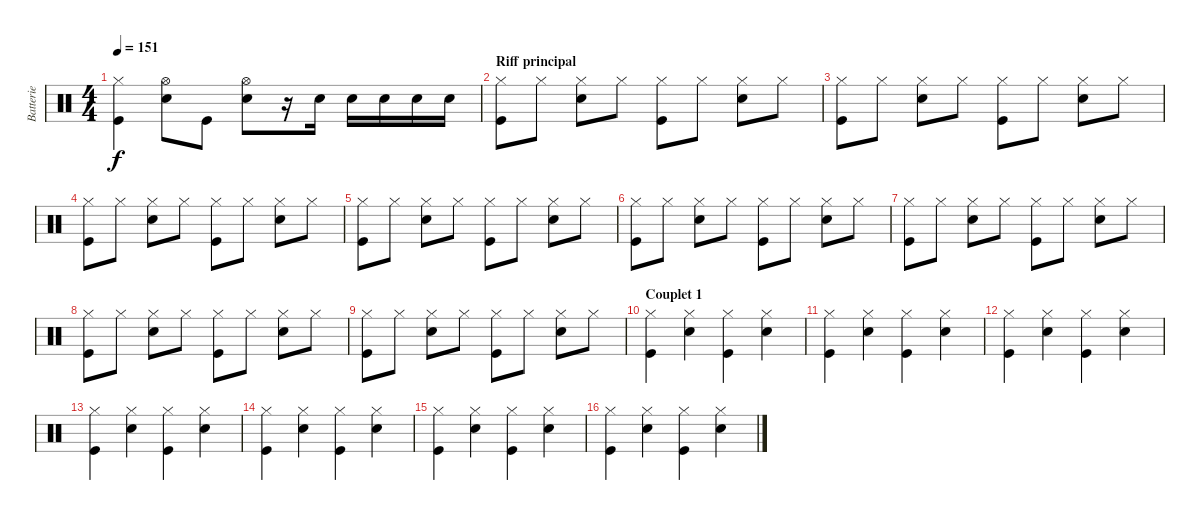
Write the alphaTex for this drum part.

\track ("Batterie" "Batterie") {instrument percussion}
\staff {score}
\articulation defaults
\ts (4 4)
\tempo 151
\clef neutral
\ks c
("Hi-Hat (closed)" "Kick (hit)").4{dy f} ("Hi-Hat (open)" "Electric Snare (hit)").8 "Kick (hit)".8 ("Hi-Hat (open)" "Electric Snare (hit)").8 r.16 "Electric Snare (hit)".16 "Electric Snare (hit)".16 "Electric Snare (hit)".16 "Electric Snare (hit)".16 "Electric Snare (hit)".16 |
\section ("" "Riff principal")
("Hi-Hat (closed)" "Kick (hit)").8 "Hi-Hat (closed)".8 ("Hi-Hat (closed)" "Electric Snare (hit)").8 "Hi-Hat (closed)".8 ("Hi-Hat (closed)" "Kick (hit)").8 "Hi-Hat (closed)".8 ("Hi-Hat (closed)" "Electric Snare (hit)").8 "Hi-Hat (closed)".8 |
("Hi-Hat (closed)" "Kick (hit)").8 "Hi-Hat (closed)".8 ("Hi-Hat (closed)" "Electric Snare (hit)").8 "Hi-Hat (closed)".8 ("Hi-Hat (closed)" "Kick (hit)").8 "Hi-Hat (closed)".8 ("Hi-Hat (closed)" "Electric Snare (hit)").8 "Hi-Hat (closed)".8 |
("Hi-Hat (closed)" "Kick (hit)").8 "Hi-Hat (closed)".8 ("Hi-Hat (closed)" "Electric Snare (hit)").8 "Hi-Hat (closed)".8 ("Hi-Hat (closed)" "Kick (hit)").8 "Hi-Hat (closed)".8 ("Hi-Hat (closed)" "Electric Snare (hit)").8 "Hi-Hat (closed)".8 |
("Hi-Hat (closed)" "Kick (hit)").8 "Hi-Hat (closed)".8 ("Hi-Hat (closed)" "Electric Snare (hit)").8 "Hi-Hat (closed)".8 ("Hi-Hat (closed)" "Kick (hit)").8 "Hi-Hat (closed)".8 ("Hi-Hat (closed)" "Electric Snare (hit)").8 "Hi-Hat (closed)".8 |
("Hi-Hat (closed)" "Kick (hit)").8 "Hi-Hat (closed)".8 ("Hi-Hat (closed)" "Electric Snare (hit)").8 "Hi-Hat (closed)".8 ("Hi-Hat (closed)" "Kick (hit)").8 "Hi-Hat (closed)".8 ("Hi-Hat (closed)" "Electric Snare (hit)").8 "Hi-Hat (closed)".8 |
("Hi-Hat (closed)" "Kick (hit)").8 "Hi-Hat (closed)".8 ("Hi-Hat (closed)" "Electric Snare (hit)").8 "Hi-Hat (closed)".8 ("Hi-Hat (closed)" "Kick (hit)").8 "Hi-Hat (closed)".8 ("Hi-Hat (closed)" "Electric Snare (hit)").8 "Hi-Hat (closed)".8 |
("Hi-Hat (closed)" "Kick (hit)").8 "Hi-Hat (closed)".8 ("Hi-Hat (closed)" "Electric Snare (hit)").8 "Hi-Hat (closed)".8 ("Hi-Hat (closed)" "Kick (hit)").8 "Hi-Hat (closed)".8 ("Hi-Hat (closed)" "Electric Snare (hit)").8 "Hi-Hat (closed)".8 |
("Hi-Hat (closed)" "Kick (hit)").8 "Hi-Hat (closed)".8 ("Hi-Hat (closed)" "Electric Snare (hit)").8 "Hi-Hat (closed)".8 ("Hi-Hat (closed)" "Kick (hit)").8 "Hi-Hat (closed)".8 ("Hi-Hat (closed)" "Electric Snare (hit)").8 "Hi-Hat (closed)".8 |
\section ("" "Couplet 1")
("Hi-Hat (closed)" "Kick (hit)").4 ("Hi-Hat (closed)" "Electric Snare (hit)").4 ("Hi-Hat (closed)" "Kick (hit)").4 ("Hi-Hat (closed)" "Electric Snare (hit)").4 |
("Hi-Hat (closed)" "Kick (hit)").4 ("Hi-Hat (closed)" "Electric Snare (hit)").4 ("Hi-Hat (closed)" "Kick (hit)").4 ("Hi-Hat (closed)" "Electric Snare (hit)").4 |
("Hi-Hat (closed)" "Kick (hit)").4 ("Hi-Hat (closed)" "Electric Snare (hit)").4 ("Hi-Hat (closed)" "Kick (hit)").4 ("Hi-Hat (closed)" "Electric Snare (hit)").4 |
("Hi-Hat (closed)" "Kick (hit)").4 ("Hi-Hat (closed)" "Electric Snare (hit)").4 ("Hi-Hat (closed)" "Kick (hit)").4 ("Hi-Hat (closed)" "Electric Snare (hit)").4 |
("Hi-Hat (closed)" "Kick (hit)").4 ("Hi-Hat (closed)" "Electric Snare (hit)").4 ("Hi-Hat (closed)" "Kick (hit)").4 ("Hi-Hat (closed)" "Electric Snare (hit)").4 |
("Hi-Hat (closed)" "Kick (hit)").4 ("Hi-Hat (closed)" "Electric Snare (hit)").4 ("Hi-Hat (closed)" "Kick (hit)").4 ("Hi-Hat (closed)" "Electric Snare (hit)").4 |
("Hi-Hat (closed)" "Kick (hit)").4 ("Hi-Hat (closed)" "Electric Snare (hit)").4 ("Hi-Hat (closed)" "Kick (hit)").4 ("Hi-Hat (closed)" "Electric Snare (hit)").4
